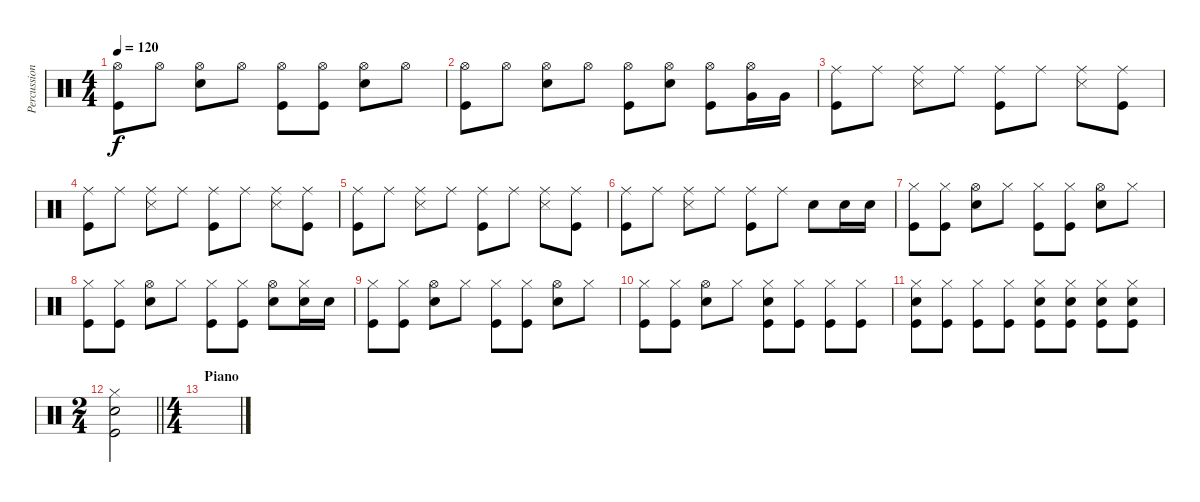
\track ("Percussions" "Percussion") {instrument percussion}
\staff {score}
\articulation defaults
\ts (4 4)
\tempo 120
\clef neutral
\ks c
("Hi-Hat (open)" "Kick (hit)").8{dy f} "Hi-Hat (open)".8 ("Hi-Hat (open)" "Electric Snare (hit)").8 "Hi-Hat (open)".8 ("Hi-Hat (open)" "Kick (hit)").8 ("Hi-Hat (open)" "Kick (hit)").8 ("Hi-Hat (open)" "Electric Snare (hit)").8 "Hi-Hat (open)".8 |
("Hi-Hat (open)" "Kick (hit)").8 "Hi-Hat (open)".8 ("Hi-Hat (open)" "Electric Snare (hit)").8 "Hi-Hat (open)".8 ("Hi-Hat (open)" "Kick (hit)").8 ("Hi-Hat (open)" "Electric Snare (hit)").8 ("Hi-Hat (open)" "Kick (hit)").8 ("Hi-Hat (open)" "Very Low Tom (hit)").16 "Very Low Tom (hit)".16 |
("Ride (middle)" "Kick (hit)").8 "Ride (middle)".8 ("Ride (middle)" "Snare (side stick) 3").8 "Ride (middle)".8 ("Ride (middle)" "Kick (hit)").8 "Ride (middle)".8 ("Ride (middle)" "Snare (side stick) 3").8 ("Ride (middle)" "Kick (hit)").8 |
("Ride (middle)" "Kick (hit)").8 "Ride (middle)".8 ("Ride (middle)" "Snare (side stick) 3").8 "Ride (middle)".8 ("Ride (middle)" "Kick (hit)").8 "Ride (middle)".8 ("Ride (middle)" "Snare (side stick) 3").8 ("Ride (middle)" "Kick (hit)").8 |
("Ride (middle)" "Kick (hit)").8 "Ride (middle)".8 ("Ride (middle)" "Snare (side stick) 3").8 "Ride (middle)".8 ("Ride (middle)" "Kick (hit)").8 "Ride (middle)".8 ("Ride (middle)" "Snare (side stick) 3").8 ("Ride (middle)" "Kick (hit)").8 |
("Ride (middle)" "Kick (hit)").8 "Ride (middle)".8 ("Ride (middle)" "Snare (side stick) 3").8 "Ride (middle)".8 ("Ride (middle)" "Kick (hit)").8 "Ride (middle)".8 "Electric Snare (hit)".8 "Electric Snare (hit)".16 "Electric Snare (hit)".16 |
("Hi-Hat (closed)" "Kick (hit)").8 ("Hi-Hat (closed)" "Kick (hit)").8 ("Hi-Hat (open)" "Electric Snare (hit)").8 "Hi-Hat (closed)".8 ("Hi-Hat (closed)" "Kick (hit)").8 ("Hi-Hat (closed)" "Kick (hit)").8 ("Hi-Hat (open)" "Electric Snare (hit)").8 "Hi-Hat (closed)".8 |
("Hi-Hat (closed)" "Kick (hit)").8 ("Hi-Hat (closed)" "Kick (hit)").8 ("Hi-Hat (open)" "Electric Snare (hit)").8 "Hi-Hat (closed)".8 ("Hi-Hat (closed)" "Kick (hit)").8 ("Hi-Hat (closed)" "Kick (hit)").8 ("Hi-Hat (open)" "Electric Snare (hit)").8 ("Hi-Hat (closed)" "Electric Snare (hit)").16 "Electric Snare (hit)".16 |
("Hi-Hat (closed)" "Kick (hit)").8 ("Hi-Hat (closed)" "Kick (hit)").8 ("Hi-Hat (open)" "Electric Snare (hit)").8 "Hi-Hat (closed)".8 ("Hi-Hat (closed)" "Kick (hit)").8 ("Hi-Hat (closed)" "Kick (hit)").8 ("Hi-Hat (open)" "Electric Snare (hit)").8 "Hi-Hat (closed)".8 |
("Hi-Hat (closed)" "Kick (hit)").8 ("Hi-Hat (closed)" "Kick (hit)").8 ("Hi-Hat (open)" "Electric Snare (hit)").8 "Hi-Hat (closed)".8 ("Hi-Hat (closed)" "Electric Snare (hit)" "Kick (hit)").8 ("Hi-Hat (closed)" "Kick (hit)").8 ("Hi-Hat (closed)" "Kick (hit)").8 ("Hi-Hat (closed)" "Kick (hit)").8 |
("Hi-Hat (closed)" "Electric Snare (hit)" "Kick (hit)").8 ("Hi-Hat (closed)" "Kick (hit)").8 ("Hi-Hat (closed)" "Kick (hit)").8 ("Hi-Hat (closed)" "Kick (hit)").8 ("Hi-Hat (closed)" "Electric Snare (hit)" "Kick (hit)").8 ("Hi-Hat (closed)" "Electric Snare (hit)" "Kick (hit)").8 ("Hi-Hat (closed)" "Electric Snare (hit)" "Kick (hit)").8 ("Hi-Hat (closed)" "Electric Snare (hit)" "Kick (hit)").8 |
\ts (2 4)
\barLineRight lightlight
("Hi-Hat (closed)" "Electric Snare (hit)" "Kick (hit)").2 |
\ts (4 4)
\section ("" "Piano")
